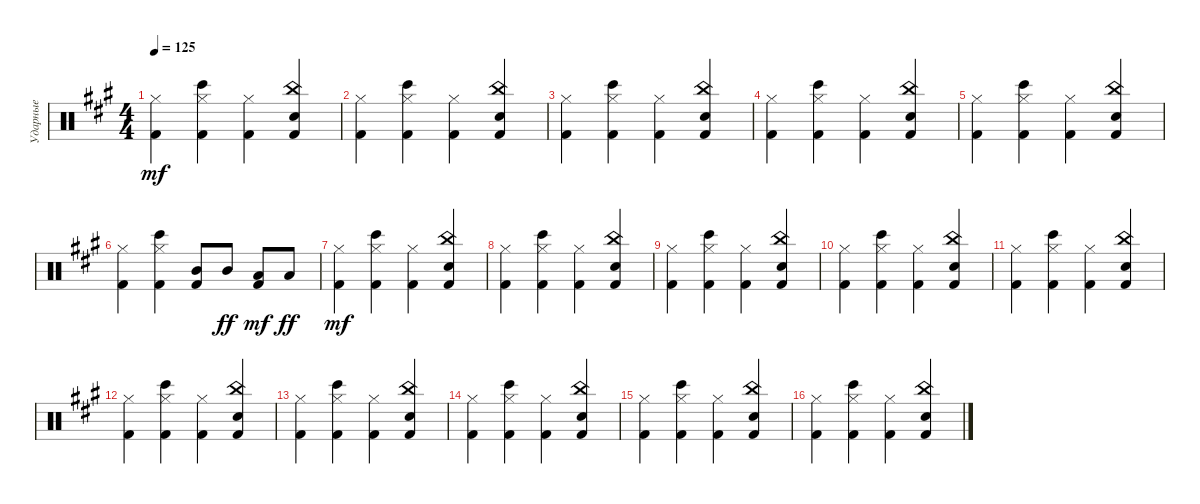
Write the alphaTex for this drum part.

\track ("Ударные" "Ударные") {instrument percussion}
\staff {score}
\articulation defaults
\ts (4 4)
\tempo 125
\clef neutral
\ks f#minor
("Hi-Hat (closed)" "Kick (hit) 2").4{dy mf} ("Hi-Hat (closed)" "Bongo High (hit)" "Kick (hit) 2").4 ("Hi-Hat (closed)" "Kick (hit) 2").4 ("China (hit)" "Electric Snare (hit)" "Kick (hit) 2").4 |
("Hi-Hat (closed)" "Kick (hit) 2").4 ("Hi-Hat (closed)" "Bongo High (hit)" "Kick (hit) 2").4 ("Hi-Hat (closed)" "Kick (hit) 2").4 ("China (hit)" "Electric Snare (hit)" "Kick (hit) 2").4 |
("Hi-Hat (closed)" "Kick (hit) 2").4 ("Hi-Hat (closed)" "Bongo High (hit)" "Kick (hit) 2").4 ("Hi-Hat (closed)" "Kick (hit) 2").4 ("China (hit)" "Electric Snare (hit)" "Kick (hit) 2").4 |
("Hi-Hat (closed)" "Kick (hit) 2").4 ("Hi-Hat (closed)" "Bongo High (hit)" "Kick (hit) 2").4 ("Hi-Hat (closed)" "Kick (hit) 2").4 ("China (hit)" "Electric Snare (hit)" "Kick (hit) 2").4 |
("Hi-Hat (closed)" "Kick (hit) 2").4 ("Hi-Hat (closed)" "Bongo High (hit)" "Kick (hit) 2").4 ("Hi-Hat (closed)" "Kick (hit) 2").4 ("China (hit)" "Electric Snare (hit)" "Kick (hit) 2").4 |
("Hi-Hat (closed)" "Kick (hit) 2").4 ("Hi-Hat (closed)" "Bongo High (hit)" "Kick (hit) 2").4 ("Mid Tom (hit)" "Kick (hit) 2").8 "Mid Tom (hit)".8{dy ff} ("Low Tom (hit)" "Kick (hit) 2").8{dy mf} "Low Tom (hit)".8{dy ff} |
("Hi-Hat (closed)" "Kick (hit) 2").4{dy mf} ("Hi-Hat (closed)" "Bongo High (hit)" "Kick (hit) 2").4 ("Hi-Hat (closed)" "Kick (hit) 2").4 ("China (hit)" "Electric Snare (hit)" "Kick (hit) 2").4 |
("Hi-Hat (closed)" "Kick (hit) 2").4 ("Hi-Hat (closed)" "Bongo High (hit)" "Kick (hit) 2").4 ("Hi-Hat (closed)" "Kick (hit) 2").4 ("China (hit)" "Electric Snare (hit)" "Kick (hit) 2").4 |
("Hi-Hat (closed)" "Kick (hit) 2").4 ("Hi-Hat (closed)" "Bongo High (hit)" "Kick (hit) 2").4 ("Hi-Hat (closed)" "Kick (hit) 2").4 ("China (hit)" "Electric Snare (hit)" "Kick (hit) 2").4 |
("Hi-Hat (closed)" "Kick (hit) 2").4 ("Hi-Hat (closed)" "Bongo High (hit)" "Kick (hit) 2").4 ("Hi-Hat (closed)" "Kick (hit) 2").4 ("China (hit)" "Electric Snare (hit)" "Kick (hit) 2").4 |
("Hi-Hat (closed)" "Kick (hit) 2").4 ("Hi-Hat (closed)" "Bongo High (hit)" "Kick (hit) 2").4 ("Hi-Hat (closed)" "Kick (hit) 2").4 ("China (hit)" "Electric Snare (hit)" "Kick (hit) 2").4 |
("Hi-Hat (closed)" "Kick (hit) 2").4 ("Hi-Hat (closed)" "Bongo High (hit)" "Kick (hit) 2").4 ("Hi-Hat (closed)" "Kick (hit) 2").4 ("China (hit)" "Electric Snare (hit)" "Kick (hit) 2").4 |
("Hi-Hat (closed)" "Kick (hit) 2").4 ("Hi-Hat (closed)" "Bongo High (hit)" "Kick (hit) 2").4 ("Hi-Hat (closed)" "Kick (hit) 2").4 ("China (hit)" "Electric Snare (hit)" "Kick (hit) 2").4 |
("Hi-Hat (closed)" "Kick (hit) 2").4 ("Hi-Hat (closed)" "Bongo High (hit)" "Kick (hit) 2").4 ("Hi-Hat (closed)" "Kick (hit) 2").4 ("China (hit)" "Electric Snare (hit)" "Kick (hit) 2").4 |
("Hi-Hat (closed)" "Kick (hit) 2").4 ("Hi-Hat (closed)" "Bongo High (hit)" "Kick (hit) 2").4 ("Hi-Hat (closed)" "Kick (hit) 2").4 ("China (hit)" "Electric Snare (hit)" "Kick (hit) 2").4 |
("Hi-Hat (closed)" "Kick (hit) 2").4 ("Hi-Hat (closed)" "Bongo High (hit)" "Kick (hit) 2").4 ("Hi-Hat (closed)" "Kick (hit) 2").4 ("China (hit)" "Electric Snare (hit)" "Kick (hit) 2").4
